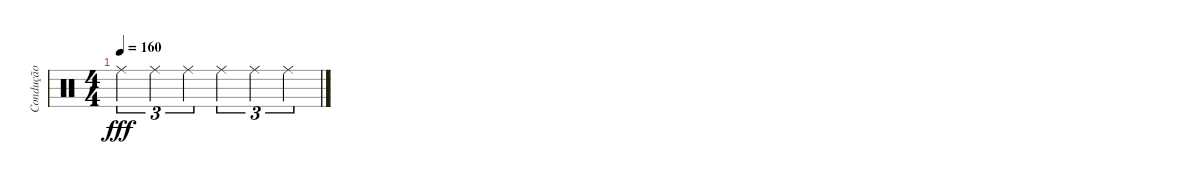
\track ("Condução" "Condução") {instrument percussion}
\staff {score}
\articulation defaults
\ts (4 4)
\tempo 160
\clef neutral
\ks c "Ride (middle)".4{tu (3 2) dy fff} "Ride (middle)".4{tu (3 2)} "Ride (middle)".4{tu (3 2)} "Ride (middle)".4{tu (3 2)} "Ride (middle)".4{tu (3 2)} "Ride (middle)".4{tu (3 2)}
